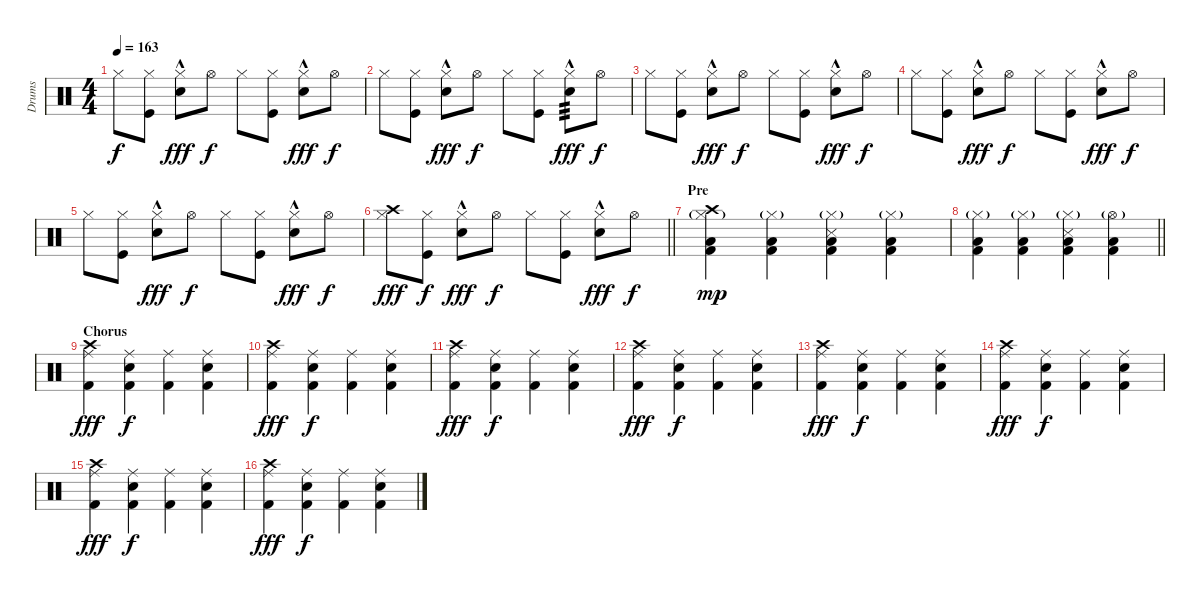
\track ("Drums" "Drums") {instrument percussion}
\staff {score}
\articulation defaults
\ts (4 4)
\tempo 163
\clef neutral
\ks c "Hi-Hat (closed)".8{dy f}
("Kick (hit)" "Hi-Hat (closed)").8 ("Snare (hit) 2"{hac} "Hi-Hat (closed)").8{dy fff} "Hi-Hat (open)".8{dy f} "Hi-Hat (closed)".8 ("Kick (hit)" "Hi-Hat (closed)").8 ("Snare (hit) 2"{hac} "Hi-Hat (closed)").8{dy fff} "Hi-Hat (open)".8{dy f} |
"Hi-Hat (closed)".8 ("Kick (hit)" "Hi-Hat (closed)").8 ("Snare (hit) 2"{hac} "Hi-Hat (closed)").8{dy fff} "Hi-Hat (open)".8{dy f} "Hi-Hat (closed)".8 ("Kick (hit)" "Hi-Hat (closed)").8 ("Snare (hit) 2"{hac} "Hi-Hat (closed)").8{tp 3 dy fff} "Hi-Hat (open)".8{dy f} |
"Hi-Hat (closed)".8 ("Kick (hit)" "Hi-Hat (closed)").8 ("Snare (hit) 2"{hac} "Hi-Hat (closed)").8{dy fff} "Hi-Hat (open)".8{dy f} "Hi-Hat (closed)".8 ("Kick (hit)" "Hi-Hat (closed)").8 ("Snare (hit) 2"{hac} "Hi-Hat (closed)").8{dy fff} "Hi-Hat (open)".8{dy f} |
"Hi-Hat (closed)".8 ("Kick (hit)" "Hi-Hat (closed)").8 ("Snare (hit) 2"{hac} "Hi-Hat (closed)").8{dy fff} "Hi-Hat (open)".8{dy f} "Hi-Hat (closed)".8 ("Kick (hit)" "Hi-Hat (closed)").8 ("Snare (hit) 2"{hac} "Hi-Hat (closed)").8{dy fff} "Hi-Hat (open)".8{dy f} |
"Hi-Hat (closed)".8 ("Kick (hit)" "Hi-Hat (closed)").8 ("Snare (hit) 2"{hac} "Hi-Hat (closed)").8{dy fff} "Hi-Hat (open)".8{dy f} "Hi-Hat (closed)".8 ("Kick (hit)" "Hi-Hat (closed)").8 ("Snare (hit) 2"{hac} "Hi-Hat (closed)").8{dy fff} "Hi-Hat (open)".8{dy f} |
\barLineRight lightlight
("Crash high (hit)" "Hi-Hat (closed)").8{dy fff} ("Kick (hit)" "Hi-Hat (closed)").8{dy f} ("Snare (hit) 2"{hac} "Hi-Hat (closed)").8{dy fff} "Hi-Hat (open)".8{dy f} "Hi-Hat (closed)".8 ("Kick (hit)" "Hi-Hat (closed)").8 ("Snare (hit) 2"{hac} "Hi-Hat (closed)").8{dy fff} "Hi-Hat (open)".8{dy f} |
\section ("" "Pre")
("Kick (hit) 2" "Low Floor Tom (hit)" "Crash high (hit)" "Hi-Hat (closed)"{g}).4{dy mp} ("Kick (hit) 2" "Low Floor Tom (hit)" "Hi-Hat (closed)"{g}).4 ("Kick (hit) 2" "Low Floor Tom (hit)" "Metronome (hit)" "Hi-Hat (closed)"{g}).4 ("Kick (hit) 2" "Low Floor Tom (hit)" "Hi-Hat (closed)"{g}).4 |
\barLineRight lightlight
("Kick (hit) 2" "Low Floor Tom (hit)" "Hi-Hat (closed)"{g}).4 ("Kick (hit) 2" "Low Floor Tom (hit)" "Hi-Hat (closed)"{g}).4 ("Kick (hit) 2" "Low Floor Tom (hit)" "Metronome (hit)" "Hi-Hat (closed)"{g}).4 ("Kick (hit) 2" "Low Floor Tom (hit)" "Hi-Hat (open)"{g}).4 |
\section ("" "Chorus")
("Kick (hit) 2" "Crash high (hit)" "Ride (middle)").4{dy fff} ("Kick (hit) 2" "Snare (hit) 2" "Ride (middle)").4{dy f} ("Kick (hit) 2" "Ride (middle)").4 ("Kick (hit) 2" "Snare (hit) 2" "Ride (middle)").4 |
("Kick (hit) 2" "Crash high (hit)" "Ride (middle)").4{dy fff} ("Kick (hit) 2" "Snare (hit) 2" "Ride (middle)").4{dy f} ("Kick (hit) 2" "Ride (middle)").4 ("Kick (hit) 2" "Snare (hit) 2" "Ride (middle)").4 |
("Kick (hit) 2" "Crash high (hit)" "Ride (middle)").4{dy fff} ("Kick (hit) 2" "Snare (hit) 2" "Ride (middle)").4{dy f} ("Kick (hit) 2" "Ride (middle)").4 ("Kick (hit) 2" "Snare (hit) 2" "Ride (middle)").4 |
("Kick (hit) 2" "Crash high (hit)" "Ride (middle)").4{dy fff} ("Kick (hit) 2" "Snare (hit) 2" "Ride (middle)").4{dy f} ("Kick (hit) 2" "Ride (middle)").4 ("Kick (hit) 2" "Snare (hit) 2" "Ride (middle)").4 |
("Kick (hit) 2" "Crash high (hit)" "Ride (middle)").4{dy fff} ("Kick (hit) 2" "Snare (hit) 2" "Ride (middle)").4{dy f} ("Kick (hit) 2" "Ride (middle)").4 ("Kick (hit) 2" "Snare (hit) 2" "Ride (middle)").4 |
("Kick (hit) 2" "Crash high (hit)" "Ride (middle)").4{dy fff} ("Kick (hit) 2" "Snare (hit) 2" "Ride (middle)").4{dy f} ("Kick (hit) 2" "Ride (middle)").4 ("Kick (hit) 2" "Snare (hit) 2" "Ride (middle)").4 |
("Kick (hit) 2" "Crash high (hit)" "Ride (middle)").4{dy fff} ("Kick (hit) 2" "Snare (hit) 2" "Ride (middle)").4{dy f} ("Kick (hit) 2" "Ride (middle)").4 ("Kick (hit) 2" "Snare (hit) 2" "Ride (middle)").4 |
("Kick (hit) 2" "Crash high (hit)" "Ride (middle)").4{dy fff} ("Kick (hit) 2" "Snare (hit) 2" "Ride (middle)").4{dy f} ("Kick (hit) 2" "Ride (middle)").4 ("Kick (hit) 2" "Snare (hit) 2" "Ride (middle)").4
